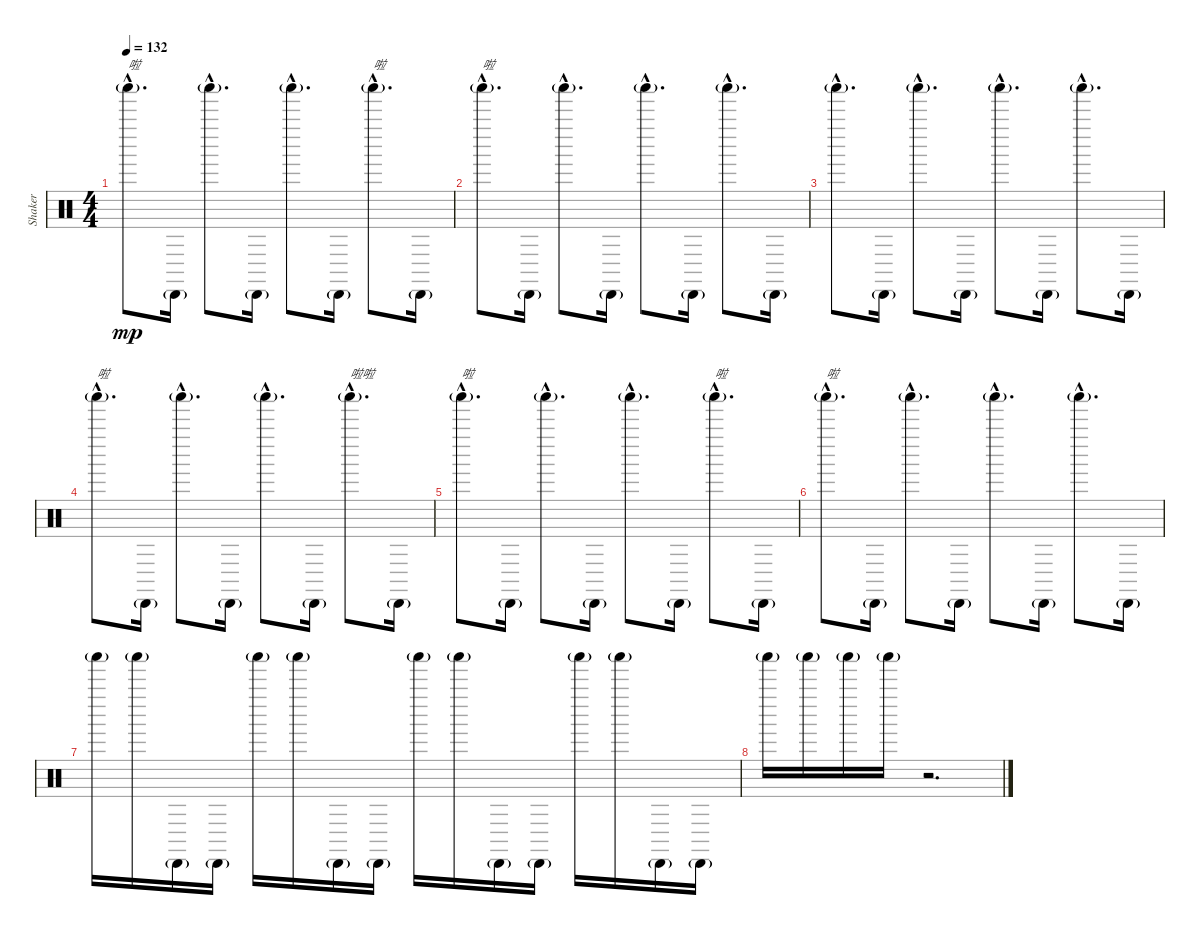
\track ("Shaker" "Shaker") {instrument percussion}
\staff {score}
\articulation defaults
\ts (4 4)
\tempo 132
\clef neutral
\ks c "Shaker (hit)"{g hac}.8{d txt "啦" dy mp} "Cabasa (hit)"{g}.16 "Shaker (hit)"{g hac}.8{d} "Cabasa (hit)"{g}.16 "Shaker (hit)"{g hac}.8{d} "Cabasa (hit)"{g}.16 "Shaker (hit)"{g hac}.8{d txt "啦"} "Cabasa (hit)"{g}.16
|
"Shaker (hit)"{g hac}.8{d txt "啦"} "Cabasa (hit)"{g}.16 "Shaker (hit)"{g hac}.8{d} "Cabasa (hit)"{g}.16 "Shaker (hit)"{g hac}.8{d} "Cabasa (hit)"{g}.16 "Shaker (hit)"{g hac}.8{d} "Cabasa (hit)"{g}.16 |
"Shaker (hit)"{g hac}.8{d} "Cabasa (hit)"{g}.16 "Shaker (hit)"{g hac}.8{d} "Cabasa (hit)"{g}.16 "Shaker (hit)"{g hac}.8{d} "Cabasa (hit)"{g}.16 "Shaker (hit)"{g hac}.8{d} "Cabasa (hit)"{g}.16 |
"Shaker (hit)"{g hac}.8{d txt "啦"} "Cabasa (hit)"{g}.16 "Shaker (hit)"{g hac}.8{d} "Cabasa (hit)"{g}.16 "Shaker (hit)"{g hac}.8{d} "Cabasa (hit)"{g}.16 "Shaker (hit)"{g hac}.8{d txt "啦啦"} "Cabasa (hit)"{g}.16 |
"Shaker (hit)"{g hac}.8{d txt "啦"} "Cabasa (hit)"{g}.16 "Shaker (hit)"{g hac}.8{d} "Cabasa (hit)"{g}.16 "Shaker (hit)"{g hac}.8{d} "Cabasa (hit)"{g}.16 "Shaker (hit)"{g hac}.8{d txt "啦"} "Cabasa (hit)"{g}.16 |
"Shaker (hit)"{g hac}.8{d txt "啦"} "Cabasa (hit)"{g}.16 "Shaker (hit)"{g hac}.8{d} "Cabasa (hit)"{g}.16 "Shaker (hit)"{g hac}.8{d} "Cabasa (hit)"{g}.16 "Shaker (hit)"{g hac}.8{d} "Cabasa (hit)"{g}.16 |
"Shaker (hit)"{g}.16 "Shaker (hit)"{g}.16 "Cabasa (hit)"{g}.16 "Cabasa (hit)"{g}.16 "Shaker (hit)"{g}.16 "Shaker (hit)"{g}.16 "Cabasa (hit)"{g}.16 "Cabasa (hit)"{g}.16 "Shaker (hit)"{g}.16 "Shaker (hit)"{g}.16 "Cabasa (hit)"{g}.16 "Cabasa (hit)"{g}.16 "Shaker (hit)"{g}.16 "Shaker (hit)"{g}.16 "Cabasa (hit)"{g}.16 "Cabasa (hit)"{g}.16 |
"Shaker (hit)"{g}.16 "Shaker (hit)"{g}.16 "Shaker (hit)"{g}.16 "Shaker (hit)"{g}.16 r.2{d}
